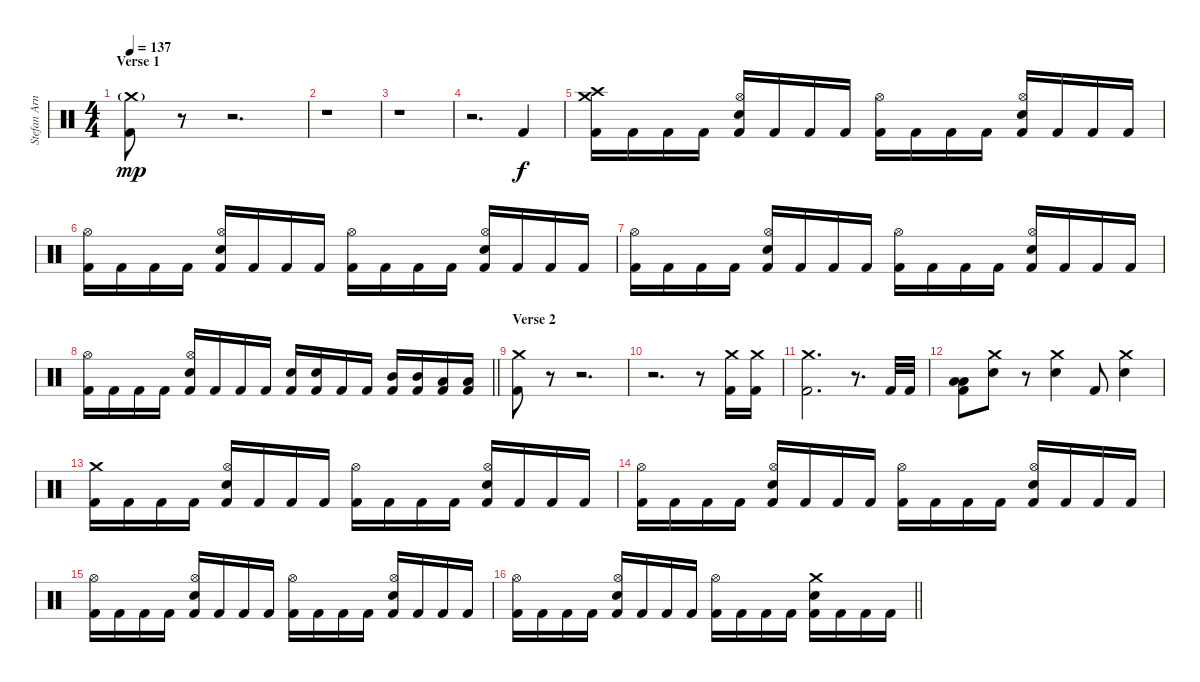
\track ("Stefan Arnold" "Stefan Arn") {instrument percussion}
\staff {score}
\articulation defaults
\ts (4 4)
\section ("" "Verse 1")
\tempo 137
\clef neutral
\ks c
("Crash medium (hit)"{g} "Kick (hit) 2").8{dy mp} r.8 r.2{d} |
r.1 |
r.1 |
r.2{d} "Kick (hit) 2".4{dy f} |
("Crash medium (hit)" "Crash high (hit)" "Kick (hit) 2").16 "Kick (hit) 2".16 "Kick (hit) 2".16 "Kick (hit) 2".16 ("Hi-Hat (open)" "Electric Snare (hit)" "Kick (hit) 2").16 "Kick (hit) 2".16 "Kick (hit) 2".16 "Kick (hit) 2".16 ("Hi-Hat (open)" "Kick (hit) 2").16 "Kick (hit) 2".16 "Kick (hit) 2".16 "Kick (hit) 2".16 ("Hi-Hat (open)" "Electric Snare (hit)" "Kick (hit) 2").16 "Kick (hit) 2".16 "Kick (hit) 2".16 "Kick (hit) 2".16 |
("Hi-Hat (open)" "Kick (hit) 2").16 "Kick (hit) 2".16 "Kick (hit) 2".16 "Kick (hit) 2".16 ("Hi-Hat (open)" "Electric Snare (hit)" "Kick (hit) 2").16 "Kick (hit) 2".16 "Kick (hit) 2".16 "Kick (hit) 2".16 ("Hi-Hat (open)" "Kick (hit) 2").16 "Kick (hit) 2".16 "Kick (hit) 2".16 "Kick (hit) 2".16 ("Hi-Hat (open)" "Electric Snare (hit)" "Kick (hit) 2").16 "Kick (hit) 2".16 "Kick (hit) 2".16 "Kick (hit) 2".16 |
("Hi-Hat (open)" "Kick (hit) 2").16 "Kick (hit) 2".16 "Kick (hit) 2".16 "Kick (hit) 2".16 ("Hi-Hat (open)" "Electric Snare (hit)" "Kick (hit) 2").16 "Kick (hit) 2".16 "Kick (hit) 2".16 "Kick (hit) 2".16 ("Hi-Hat (open)" "Kick (hit) 2").16 "Kick (hit) 2".16 "Kick (hit) 2".16 "Kick (hit) 2".16 ("Hi-Hat (open)" "Electric Snare (hit)" "Kick (hit) 2").16 "Kick (hit) 2".16 "Kick (hit) 2".16 "Kick (hit) 2".16 |
\barLineRight lightlight
("Hi-Hat (open)" "Kick (hit) 2").16 "Kick (hit) 2".16 "Kick (hit) 2".16 "Kick (hit) 2".16 ("Hi-Hat (open)" "Electric Snare (hit)" "Kick (hit) 2").16 "Kick (hit) 2".16 "Kick (hit) 2".16 "Kick (hit) 2".16 ("Electric Snare (hit)" "Kick (hit) 2").16 ("Electric Snare (hit)" "Kick (hit) 2").16 "Kick (hit) 2".16 "Kick (hit) 2".16 ("Mid Tom (hit)" "Kick (hit) 2").16 ("Mid Tom (hit)" "Kick (hit) 2").16 ("Low Tom (hit)" "Kick (hit) 2").16 ("Low Tom (hit)" "Kick (hit) 2").16 |
\section ("" "Verse 2")
("Crash medium (hit)" "Kick (hit) 2").8 r.8 r.2{d} |
r.2{d} r.8 ("Crash medium (hit)" "Kick (hit) 2").16 ("Crash medium (hit)" "Kick (hit) 2").16 |
("Crash medium (hit)" "Kick (hit) 2").2{d} r.8{d} "Kick (hit) 2".32 "Kick (hit) 2".32 |
("Low Floor Tom (hit)" "Low Floor Tom (hit)" "Kick (hit) 2").8 ("Crash medium (hit)" "Electric Snare (hit)").8 r.8 ("Crash medium (hit)" "Electric Snare (hit)").4 "Kick (hit) 2".8 ("Crash medium (hit)" "Electric Snare (hit)").4 |
("Crash medium (hit)" "Kick (hit) 2").16 "Kick (hit) 2".16 "Kick (hit) 2".16 "Kick (hit) 2".16 ("Hi-Hat (open)" "Electric Snare (hit)" "Kick (hit) 2").16 "Kick (hit) 2".16 "Kick (hit) 2".16 "Kick (hit) 2".16 ("Hi-Hat (open)" "Kick (hit) 2").16 "Kick (hit) 2".16 "Kick (hit) 2".16 "Kick (hit) 2".16 ("Hi-Hat (open)" "Electric Snare (hit)" "Kick (hit) 2").16 "Kick (hit) 2".16 "Kick (hit) 2".16 "Kick (hit) 2".16 |
("Hi-Hat (open)" "Kick (hit) 2").16 "Kick (hit) 2".16 "Kick (hit) 2".16 "Kick (hit) 2".16 ("Hi-Hat (open)" "Electric Snare (hit)" "Kick (hit) 2").16 "Kick (hit) 2".16 "Kick (hit) 2".16 "Kick (hit) 2".16 ("Hi-Hat (open)" "Kick (hit) 2").16 "Kick (hit) 2".16 "Kick (hit) 2".16 "Kick (hit) 2".16 ("Hi-Hat (open)" "Electric Snare (hit)" "Kick (hit) 2").16 "Kick (hit) 2".16 "Kick (hit) 2".16 "Kick (hit) 2".16 |
("Hi-Hat (open)" "Kick (hit) 2").16 "Kick (hit) 2".16 "Kick (hit) 2".16 "Kick (hit) 2".16 ("Hi-Hat (open)" "Electric Snare (hit)" "Kick (hit) 2").16 "Kick (hit) 2".16 "Kick (hit) 2".16 "Kick (hit) 2".16 ("Hi-Hat (open)" "Kick (hit) 2").16 "Kick (hit) 2".16 "Kick (hit) 2".16 "Kick (hit) 2".16 ("Hi-Hat (open)" "Electric Snare (hit)" "Kick (hit) 2").16 "Kick (hit) 2".16 "Kick (hit) 2".16 "Kick (hit) 2".16 |
\barLineRight lightlight
("Hi-Hat (open)" "Kick (hit) 2").16 "Kick (hit) 2".16 "Kick (hit) 2".16 "Kick (hit) 2".16 ("Hi-Hat (open)" "Electric Snare (hit)" "Kick (hit) 2").16 "Kick (hit) 2".16 "Kick (hit) 2".16 "Kick (hit) 2".16 ("Hi-Hat (open)" "Kick (hit) 2").16 "Kick (hit) 2".16 "Kick (hit) 2".16 "Kick (hit) 2".16 ("Crash medium (hit)" "Electric Snare (hit)" "Kick (hit) 2").16 "Kick (hit) 2".16 "Kick (hit) 2".16 "Kick (hit) 2".16
